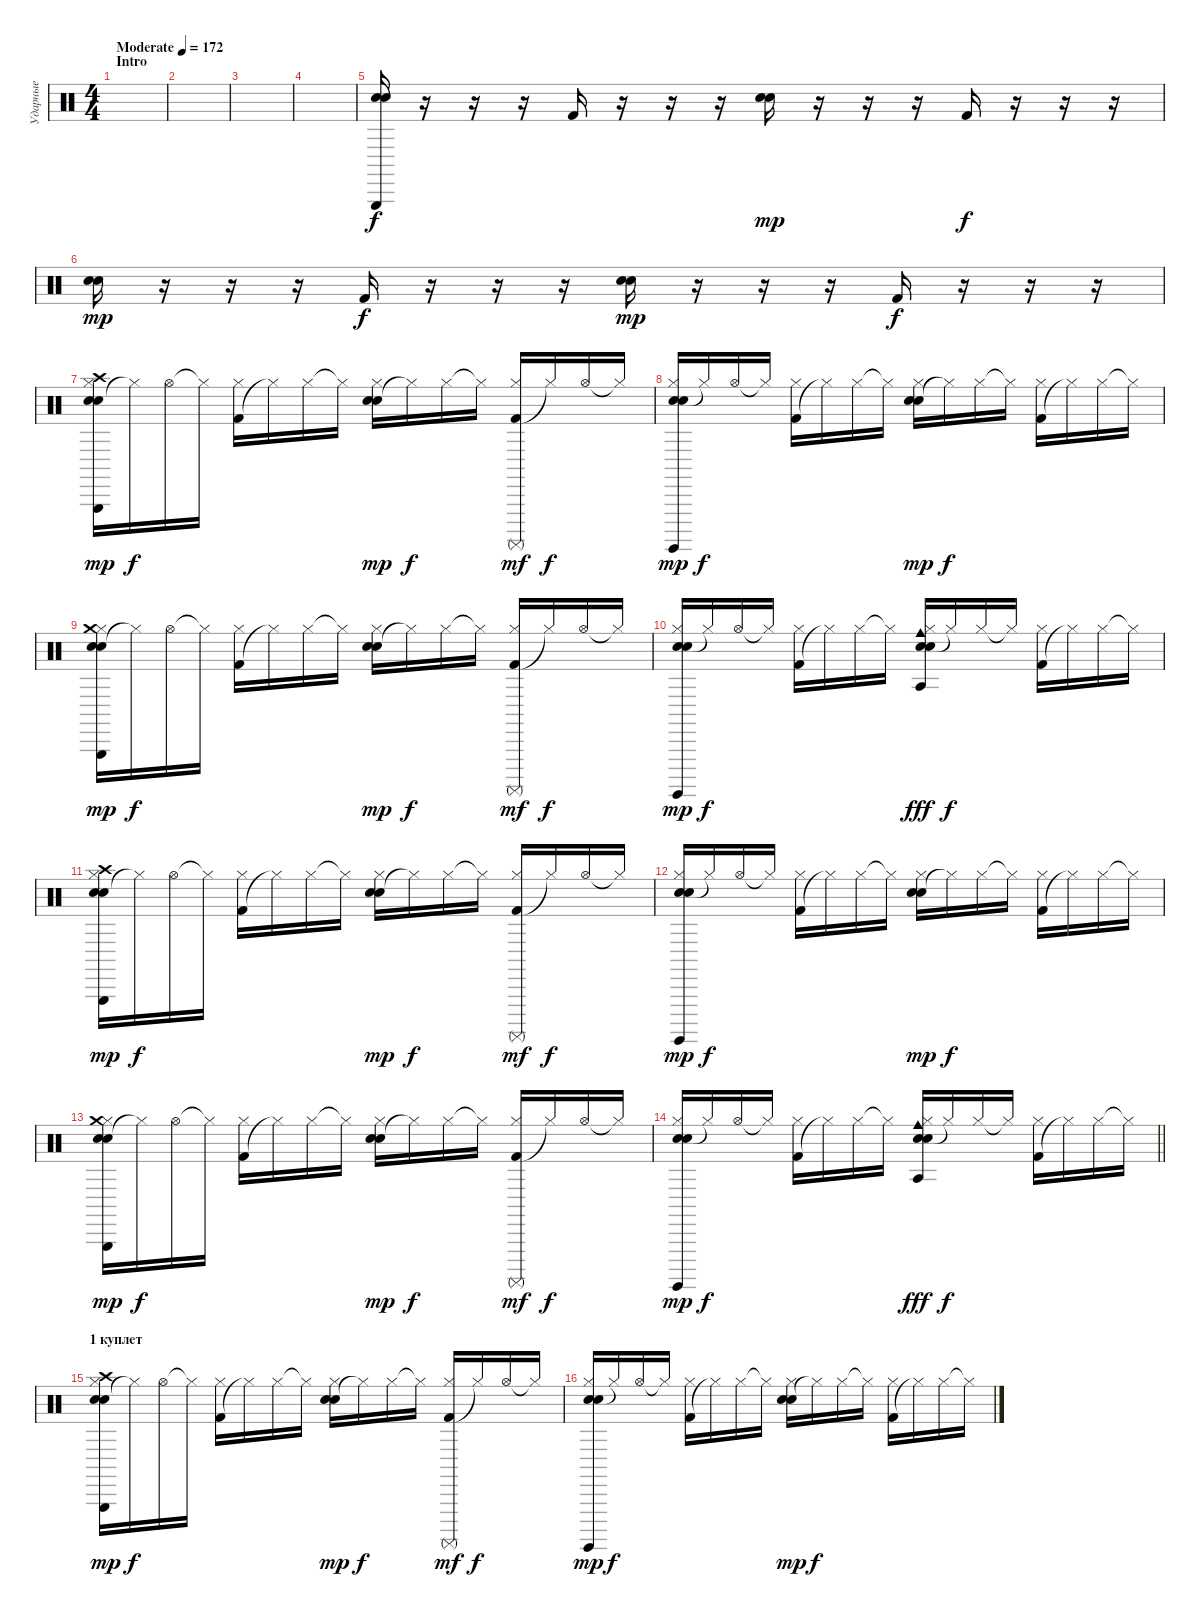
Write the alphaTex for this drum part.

\track ("Ударные" "Ударные") {instrument percussion}
\staff {score}
\articulation defaults
\ts (4 4)
\section ("" "Intro")
\tempo (172 "Moderate")
\clef neutral
\ks c
|
|
|
|
("Snare (hit) 2" "Electric Snare (hit)" "Triangle (hit)").16 r.16 r.16 r.16 "Kick (hit) 2".16{dy f} r.16 r.16 r.16 ("Snare (hit) 2" "Electric Snare (hit)").16{dy mp} r.16 r.16 r.16 "Kick (hit) 2".16{dy f} r.16 r.16 r.16 |
("Snare (hit) 2" "Electric Snare (hit)").16{dy mp} r.16 r.16 r.16 "Kick (hit) 2".16{dy f} r.16 r.16 r.16 ("Snare (hit) 2" "Electric Snare (hit)").16{dy mp} r.16 r.16 r.16 "Kick (hit) 2".16{dy f} r.16 r.16 r.16 |
("Snare (hit) 2" "Electric Snare (hit)" "Hi-Hat (closed)" "Triangle (hit)" "Crash high (hit)").16{dy mp} "Hi-Hat (closed)"{t}.16{dy f} "Hi-Hat (open)".16 "Hi-Hat (closed)"{t}.16 ("Kick (hit) 2" "Hi-Hat (closed)").16 "Hi-Hat (closed)"{t}.16 "Hi-Hat (closed)".16 "Hi-Hat (closed)"{t}.16 ("Snare (hit) 2" "Electric Snare (hit)" "Hi-Hat (closed)").16{dy mp} "Hi-Hat (closed)"{t}.16{dy f} "Hi-Hat (closed)".16 "Hi-Hat (closed)"{t}.16 ("Kick (hit) 2" "Hi-Hat (closed)" "Surdo (mute)").16{dy mf} "Hi-Hat (closed)"{t}.16{dy f} "Hi-Hat (open)".16 "Hi-Hat (closed)"{t}.16 |
("Snare (hit) 2" "Electric Snare (hit)" "Hi-Hat (closed)" "Surdo (hit)").16{dy mp} "Hi-Hat (closed)"{t}.16{dy f} "Hi-Hat (open)".16 "Hi-Hat (closed)"{t}.16 ("Kick (hit) 2" "Hi-Hat (closed)").16 "Hi-Hat (closed)"{t}.16 "Hi-Hat (closed)".16 "Hi-Hat (closed)"{t}.16 ("Snare (hit) 2" "Electric Snare (hit)" "Hi-Hat (closed)").16{dy mp} "Hi-Hat (closed)"{t}.16{dy f} "Hi-Hat (closed)".16 "Hi-Hat (closed)"{t}.16 ("Kick (hit) 2" "Hi-Hat (closed)").16 "Hi-Hat (closed)"{t}.16 "Hi-Hat (closed)".16 "Hi-Hat (closed)"{t}.16 |
("Snare (hit) 2" "Electric Snare (hit)" "Hi-Hat (closed)" "Triangle (hit)" "Crash medium (hit)").16{dy mp} "Hi-Hat (closed)"{t}.16{dy f} "Hi-Hat (open)".16 "Hi-Hat (closed)"{t}.16 ("Kick (hit) 2" "Hi-Hat (closed)").16 "Hi-Hat (closed)"{t}.16 "Hi-Hat (closed)".16 "Hi-Hat (closed)"{t}.16 ("Snare (hit) 2" "Electric Snare (hit)" "Hi-Hat (closed)").16{dy mp} "Hi-Hat (closed)"{t}.16{dy f} "Hi-Hat (closed)".16 "Hi-Hat (closed)"{t}.16 ("Kick (hit) 2" "Hi-Hat (closed)" "Surdo (mute)").16{dy mf} "Hi-Hat (closed)"{t}.16{dy f} "Hi-Hat (open)".16 "Hi-Hat (closed)"{t}.16 |
("Snare (hit) 2" "Electric Snare (hit)" "Hi-Hat (closed)" "Surdo (hit)").16{dy mp} "Hi-Hat (closed)"{t}.16{dy f} "Hi-Hat (open)".16 "Hi-Hat (closed)"{t}.16 ("Kick (hit) 2" "Hi-Hat (closed)").16 "Hi-Hat (closed)"{t}.16 "Hi-Hat (closed)".16 "Hi-Hat (closed)"{t}.16 ("Snare (hit) 2" "Electric Snare (hit)" "Hi-Hat (closed)" "Cowbell medium (hit)" "Agogo tow (hit)").16{dy fff} "Hi-Hat (closed)"{t}.16{dy f} "Hi-Hat (closed)".16 "Hi-Hat (closed)"{t}.16 ("Kick (hit) 2" "Hi-Hat (closed)").16 "Hi-Hat (closed)"{t}.16 "Hi-Hat (closed)".16 "Hi-Hat (closed)"{t}.16 |
("Snare (hit) 2" "Electric Snare (hit)" "Hi-Hat (closed)" "Triangle (hit)" "Crash high (hit)").16{dy mp} "Hi-Hat (closed)"{t}.16{dy f} "Hi-Hat (open)".16 "Hi-Hat (closed)"{t}.16 ("Kick (hit) 2" "Hi-Hat (closed)").16 "Hi-Hat (closed)"{t}.16 "Hi-Hat (closed)".16 "Hi-Hat (closed)"{t}.16 ("Snare (hit) 2" "Electric Snare (hit)" "Hi-Hat (closed)").16{dy mp} "Hi-Hat (closed)"{t}.16{dy f} "Hi-Hat (closed)".16 "Hi-Hat (closed)"{t}.16 ("Kick (hit) 2" "Hi-Hat (closed)" "Surdo (mute)").16{dy mf} "Hi-Hat (closed)"{t}.16{dy f} "Hi-Hat (open)".16 "Hi-Hat (closed)"{t}.16 |
("Snare (hit) 2" "Electric Snare (hit)" "Hi-Hat (closed)" "Surdo (hit)").16{dy mp} "Hi-Hat (closed)"{t}.16{dy f} "Hi-Hat (open)".16 "Hi-Hat (closed)"{t}.16 ("Kick (hit) 2" "Hi-Hat (closed)").16 "Hi-Hat (closed)"{t}.16 "Hi-Hat (closed)".16 "Hi-Hat (closed)"{t}.16 ("Snare (hit) 2" "Electric Snare (hit)" "Hi-Hat (closed)").16{dy mp} "Hi-Hat (closed)"{t}.16{dy f} "Hi-Hat (closed)".16 "Hi-Hat (closed)"{t}.16 ("Kick (hit) 2" "Hi-Hat (closed)").16 "Hi-Hat (closed)"{t}.16 "Hi-Hat (closed)".16 "Hi-Hat (closed)"{t}.16 |
("Snare (hit) 2" "Electric Snare (hit)" "Hi-Hat (closed)" "Crash medium (hit)" "Triangle (hit)").16{dy mp} "Hi-Hat (closed)"{t}.16{dy f} "Hi-Hat (open)".16 "Hi-Hat (closed)"{t}.16 ("Kick (hit) 2" "Hi-Hat (closed)").16 "Hi-Hat (closed)"{t}.16 "Hi-Hat (closed)".16 "Hi-Hat (closed)"{t}.16 ("Snare (hit) 2" "Electric Snare (hit)" "Hi-Hat (closed)").16{dy mp} "Hi-Hat (closed)"{t}.16{dy f} "Hi-Hat (closed)".16 "Hi-Hat (closed)"{t}.16 ("Kick (hit) 2" "Hi-Hat (closed)" "Surdo (mute)").16{dy mf} "Hi-Hat (closed)"{t}.16{dy f} "Hi-Hat (open)".16 "Hi-Hat (closed)"{t}.16 |
\barLineRight lightlight
("Snare (hit) 2" "Electric Snare (hit)" "Hi-Hat (closed)" "Surdo (hit)").16{dy mp} "Hi-Hat (closed)"{t}.16{dy f} "Hi-Hat (open)".16 "Hi-Hat (closed)"{t}.16 ("Kick (hit) 2" "Hi-Hat (closed)").16 "Hi-Hat (closed)"{t}.16 "Hi-Hat (closed)".16 "Hi-Hat (closed)"{t}.16 ("Snare (hit) 2" "Electric Snare (hit)" "Hi-Hat (closed)" "Cowbell medium (hit)" "Agogo tow (hit)").16{dy fff} "Hi-Hat (closed)"{t}.16{dy f} "Hi-Hat (closed)".16 "Hi-Hat (closed)"{t}.16 ("Kick (hit) 2" "Hi-Hat (closed)").16 "Hi-Hat (closed)"{t}.16 "Hi-Hat (closed)".16 "Hi-Hat (closed)"{t}.16 |
\section ("" "1 куплет")
("Snare (hit) 2" "Electric Snare (hit)" "Hi-Hat (closed)" "Triangle (hit)" "Crash high (hit)").16{dy mp} "Hi-Hat (closed)"{t}.16{dy f} "Hi-Hat (open)".16 "Hi-Hat (closed)"{t}.16 ("Kick (hit) 2" "Hi-Hat (closed)").16 "Hi-Hat (closed)"{t}.16 "Hi-Hat (closed)".16 "Hi-Hat (closed)"{t}.16 ("Snare (hit) 2" "Electric Snare (hit)" "Hi-Hat (closed)").16{dy mp} "Hi-Hat (closed)"{t}.16{dy f} "Hi-Hat (closed)".16 "Hi-Hat (closed)"{t}.16 ("Kick (hit) 2" "Hi-Hat (closed)" "Surdo (mute)").16{dy mf} "Hi-Hat (closed)"{t}.16{dy f} "Hi-Hat (open)".16 "Hi-Hat (closed)"{t}.16 |
("Snare (hit) 2" "Electric Snare (hit)" "Hi-Hat (closed)" "Surdo (hit)").16{dy mp} "Hi-Hat (closed)"{t}.16{dy f} "Hi-Hat (open)".16 "Hi-Hat (closed)"{t}.16 ("Kick (hit) 2" "Hi-Hat (closed)").16 "Hi-Hat (closed)"{t}.16 "Hi-Hat (closed)".16 "Hi-Hat (closed)"{t}.16 ("Snare (hit) 2" "Electric Snare (hit)" "Hi-Hat (closed)").16{dy mp} "Hi-Hat (closed)"{t}.16{dy f} "Hi-Hat (closed)".16 "Hi-Hat (closed)"{t}.16 ("Kick (hit) 2" "Hi-Hat (closed)").16 "Hi-Hat (closed)"{t}.16 "Hi-Hat (closed)".16 "Hi-Hat (closed)"{t}.16
